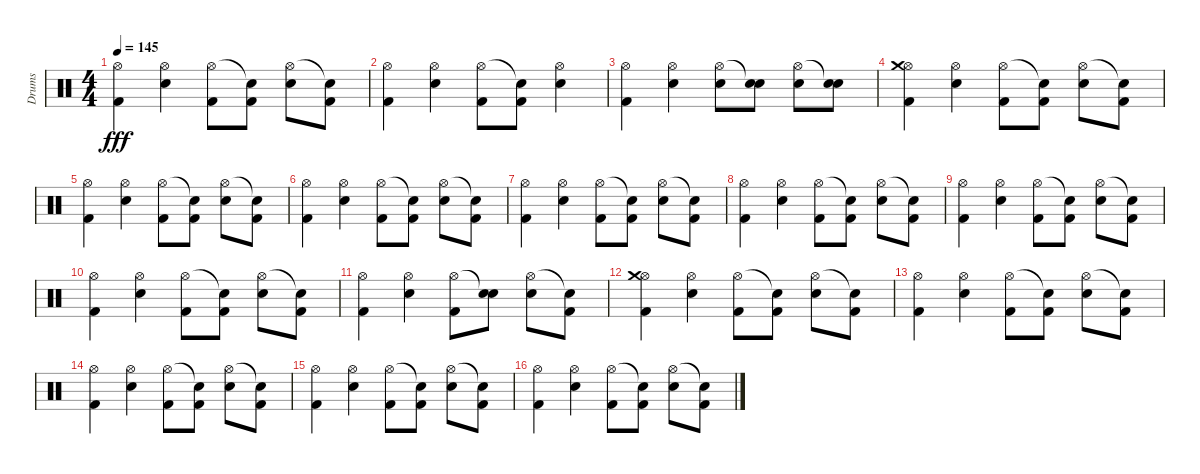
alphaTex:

\track ("Drums" "Drums") {instrument percussion}
\staff {score}
\articulation defaults
\ts (4 4)
\tempo 145
\clef neutral
\ks c
("Hi-Hat (open)" "Kick (hit) 2").4{dy fff} ("Hi-Hat (open)" "Electric Snare (hit)").4 ("Hi-Hat (open)" "Kick (hit) 2").8 ("Snare (hit)"{t} "Kick (hit) 2").8 ("Hi-Hat (open)" "Electric Snare (hit)").8 ("Snare (hit)"{t} "Kick (hit) 2").8 |
("Hi-Hat (open)" "Kick (hit) 2").4 ("Hi-Hat (open)" "Electric Snare (hit)").4 ("Hi-Hat (open)" "Kick (hit) 2").8 ("Snare (hit)"{t} "Kick (hit) 2").8 ("Hi-Hat (open)" "Electric Snare (hit)").4 |
("Hi-Hat (open)" "Kick (hit) 2").4 ("Hi-Hat (open)" "Electric Snare (hit)").4 ("Hi-Hat (open)" "Electric Snare (hit)").8 ("Snare (hit)"{t} "Electric Snare (hit)").8 ("Hi-Hat (open)" "Electric Snare (hit)").8 ("Snare (hit)"{t} "Electric Snare (hit)").8 |
("Hi-Hat (open)" "Kick (hit) 2" "Crash medium (hit)").4 ("Hi-Hat (open)" "Electric Snare (hit)").4 ("Hi-Hat (open)" "Kick (hit) 2").8 ("Snare (hit)"{t} "Kick (hit) 2").8 ("Hi-Hat (open)" "Electric Snare (hit)").8 ("Snare (hit)"{t} "Kick (hit) 2").8 |
("Hi-Hat (open)" "Kick (hit) 2").4 ("Hi-Hat (open)" "Electric Snare (hit)").4 ("Hi-Hat (open)" "Kick (hit) 2").8 ("Snare (hit)"{t} "Kick (hit) 2").8 ("Hi-Hat (open)" "Electric Snare (hit)").8 ("Snare (hit)"{t} "Kick (hit) 2").8 |
("Hi-Hat (open)" "Kick (hit) 2").4 ("Hi-Hat (open)" "Electric Snare (hit)").4 ("Hi-Hat (open)" "Kick (hit) 2").8 ("Snare (hit)"{t} "Kick (hit) 2").8 ("Hi-Hat (open)" "Electric Snare (hit)").8 ("Snare (hit)"{t} "Kick (hit) 2").8 |
("Hi-Hat (open)" "Kick (hit) 2").4 ("Hi-Hat (open)" "Electric Snare (hit)").4 ("Hi-Hat (open)" "Kick (hit) 2").8 ("Snare (hit)"{t} "Kick (hit) 2").8 ("Hi-Hat (open)" "Electric Snare (hit)").8 ("Snare (hit)"{t} "Kick (hit) 2").8 |
("Hi-Hat (open)" "Kick (hit) 2").4 ("Hi-Hat (open)" "Electric Snare (hit)").4 ("Hi-Hat (open)" "Kick (hit) 2").8 ("Snare (hit)"{t} "Kick (hit) 2").8 ("Hi-Hat (open)" "Electric Snare (hit)").8 ("Snare (hit)"{t} "Kick (hit) 2").8 |
("Hi-Hat (open)" "Kick (hit) 2").4 ("Hi-Hat (open)" "Electric Snare (hit)").4 ("Hi-Hat (open)" "Kick (hit) 2").8 ("Snare (hit)"{t} "Kick (hit) 2").8 ("Hi-Hat (open)" "Electric Snare (hit)").8 ("Snare (hit)"{t} "Kick (hit) 2").8 |
("Hi-Hat (open)" "Kick (hit) 2").4 ("Hi-Hat (open)" "Electric Snare (hit)").4 ("Hi-Hat (open)" "Kick (hit) 2").8 ("Snare (hit)"{t} "Kick (hit) 2").8 ("Hi-Hat (open)" "Electric Snare (hit)").8 ("Snare (hit)"{t} "Kick (hit) 2").8 |
("Hi-Hat (open)" "Kick (hit) 2").4 ("Hi-Hat (open)" "Electric Snare (hit)").4 ("Hi-Hat (open)" "Kick (hit) 2").8 ("Snare (hit)"{t} "Electric Snare (hit)").8 ("Hi-Hat (open)" "Electric Snare (hit)").8 ("Snare (hit)"{t} "Kick (hit) 2").8 |
("Hi-Hat (open)" "Kick (hit) 2" "Crash medium (hit)").4 ("Hi-Hat (open)" "Electric Snare (hit)").4 ("Hi-Hat (open)" "Kick (hit) 2").8 ("Snare (hit)"{t} "Kick (hit) 2").8 ("Hi-Hat (open)" "Electric Snare (hit)").8 ("Snare (hit)"{t} "Kick (hit) 2").8 |
("Hi-Hat (open)" "Kick (hit) 2").4 ("Hi-Hat (open)" "Electric Snare (hit)").4 ("Hi-Hat (open)" "Kick (hit) 2").8 ("Snare (hit)"{t} "Kick (hit) 2").8 ("Hi-Hat (open)" "Electric Snare (hit)").8 ("Snare (hit)"{t} "Kick (hit) 2").8 |
("Hi-Hat (open)" "Kick (hit) 2").4 ("Hi-Hat (open)" "Electric Snare (hit)").4 ("Hi-Hat (open)" "Kick (hit) 2").8 ("Snare (hit)"{t} "Kick (hit) 2").8 ("Hi-Hat (open)" "Electric Snare (hit)").8 ("Snare (hit)"{t} "Kick (hit) 2").8 |
("Hi-Hat (open)" "Kick (hit) 2").4 ("Hi-Hat (open)" "Electric Snare (hit)").4 ("Hi-Hat (open)" "Kick (hit) 2").8 ("Snare (hit)"{t} "Kick (hit) 2").8 ("Hi-Hat (open)" "Electric Snare (hit)").8 ("Snare (hit)"{t} "Kick (hit) 2").8 |
("Hi-Hat (open)" "Kick (hit) 2").4 ("Hi-Hat (open)" "Electric Snare (hit)").4 ("Hi-Hat (open)" "Kick (hit) 2").8 ("Snare (hit)"{t} "Kick (hit) 2").8 ("Hi-Hat (open)" "Electric Snare (hit)").8 ("Snare (hit)"{t} "Kick (hit) 2").8
